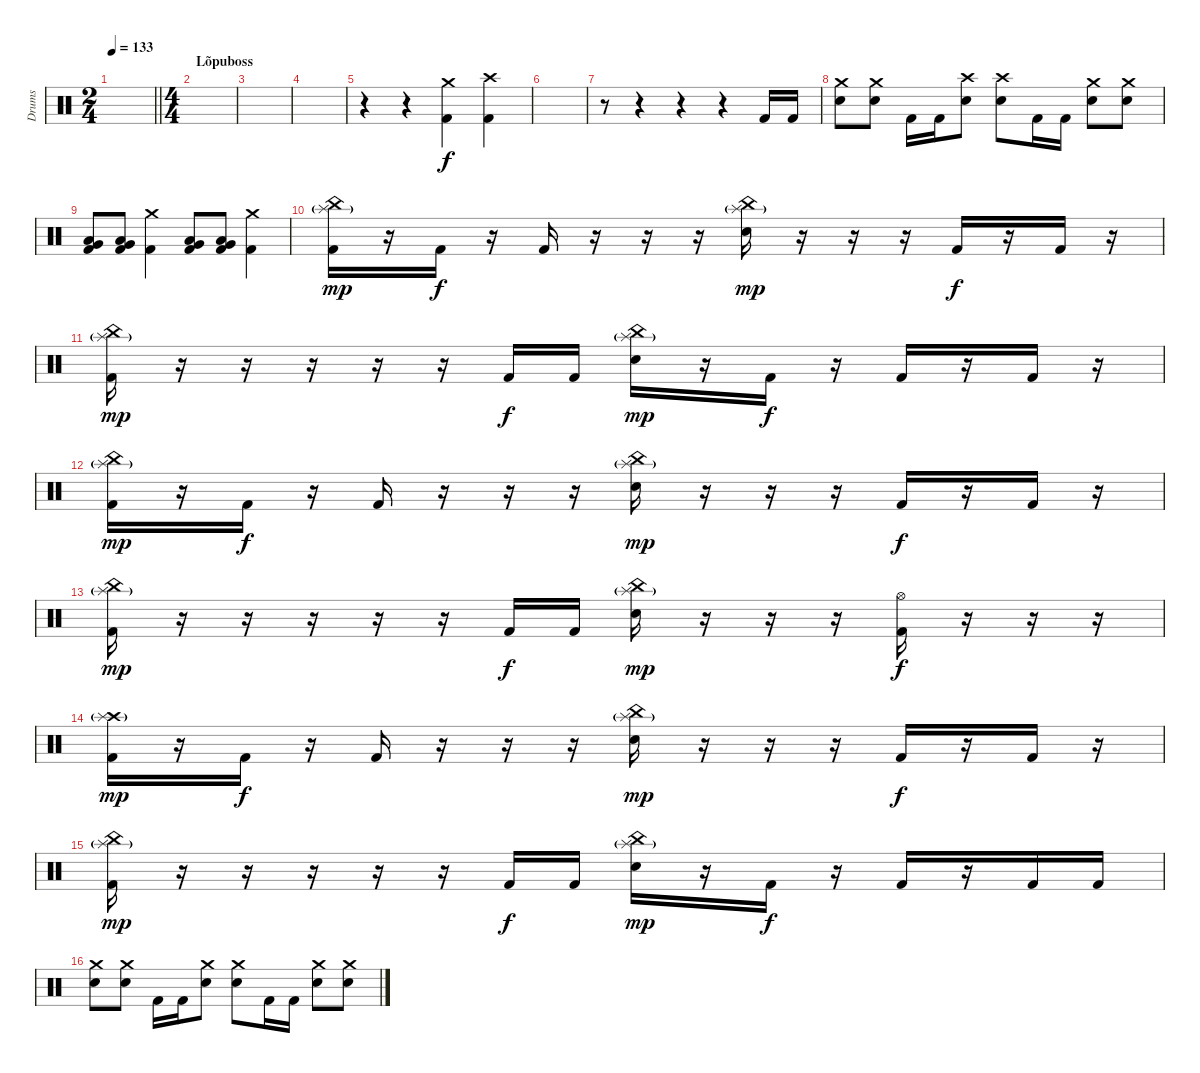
\track ("Drums" "Drums") {instrument percussion}
\staff {score}
\articulation defaults
\ts (2 4)
\tempo 133
\clef neutral
\barLineRight lightlight
\ks c
|
\ts (4 4)
\section ("" "Lõpuboss")
|
|
|
r.4 r.4 ("Crash medium (hit)" "Kick (hit) 2").4 ("Crash high (hit)" "Kick (hit) 2").4 |
|
r.8 r.4 r.4 r.4 "Kick (hit) 2".16 "Kick (hit) 2".16 |
("Crash medium (hit)" "Electric Snare (hit)").8 ("Crash medium (hit)" "Electric Snare (hit)").8 "Kick (hit) 2".16 "Kick (hit) 2".16 ("Crash high (hit)" "Electric Snare (hit)").8 ("Crash high (hit)" "Electric Snare (hit)").8 "Kick (hit) 2".16 "Kick (hit) 2".16 ("Crash medium (hit)" "Electric Snare (hit)").8 ("Crash medium (hit)" "Electric Snare (hit)").8 |
("Low Floor Tom (hit)" "Very Low Tom (hit)" "Kick (hit) 2").8 ("Low Floor Tom (hit)" "Very Low Tom (hit)" "Kick (hit) 2").8 ("Crash medium (hit)" "Kick (hit) 2").4 ("Low Floor Tom (hit)" "Very Low Tom (hit)" "Kick (hit) 2").8 ("Low Floor Tom (hit)" "Very Low Tom (hit)" "Kick (hit) 2").8 ("Crash medium (hit)" "Kick (hit) 2").4 |
("China (hit)" "Splash (hit)"{g} "Kick (hit) 2").16{dy mp} r.16 "Kick (hit) 2".16{dy f} r.16 "Kick (hit) 2".16 r.16 r.16 r.16 ("China (hit)" "Splash (hit)"{g} "Electric Snare (hit)").16{dy mp} r.16 r.16 r.16 "Kick (hit) 2".16{dy f} r.16 "Kick (hit) 2".16 r.16 |
("China (hit)" "Splash (hit)"{g} "Kick (hit) 2").16{dy mp} r.16 r.16 r.16 r.16 r.16 "Kick (hit) 2".16{dy f} "Kick (hit) 2".16 ("China (hit)" "Splash (hit)"{g} "Electric Snare (hit)").16{dy mp} r.16 "Kick (hit) 2".16{dy f} r.16 "Kick (hit) 2".16 r.16 "Kick (hit) 2".16 r.16 |
("China (hit)" "Splash (hit)"{g} "Kick (hit) 2").16{dy mp} r.16 "Kick (hit) 2".16{dy f} r.16 "Kick (hit) 2".16 r.16 r.16 r.16 ("China (hit)" "Splash (hit)"{g} "Electric Snare (hit)").16{dy mp} r.16 r.16 r.16 "Kick (hit) 2".16{dy f} r.16 "Kick (hit) 2".16 r.16 |
("China (hit)" "Splash (hit)"{g} "Kick (hit) 2").16{dy mp} r.16 r.16 r.16 r.16 r.16 "Kick (hit) 2".16{dy f} "Kick (hit) 2".16 ("China (hit)" "Splash (hit)"{g} "Electric Snare (hit)").16{dy mp} r.16 r.16 r.16 ("Hi-Hat (open)" "Kick (hit) 2").16{dy f} r.16 r.16{volume 0} r.16 |
("Crash high (hit)" "Splash (hit)"{g} "Kick (hit) 2").16{dy mp volume 14} r.16 "Kick (hit) 2".16{dy f} r.16 "Kick (hit) 2".16 r.16 r.16 r.16 ("China (hit)" "Splash (hit)"{g} "Electric Snare (hit)").16{dy mp} r.16 r.16 r.16 "Kick (hit) 2".16{dy f} r.16 "Kick (hit) 2".16 r.16 |
("China (hit)" "Splash (hit)"{g} "Kick (hit) 2").16{dy mp} r.16 r.16 r.16 r.16 r.16 "Kick (hit) 2".16{dy f} "Kick (hit) 2".16 ("China (hit)" "Splash (hit)"{g} "Electric Snare (hit)").16{dy mp} r.16 "Kick (hit) 2".16{dy f} r.16 "Kick (hit) 2".16 r.16 "Kick (hit) 2".16 "Kick (hit) 2".16 |
("Crash medium (hit)" "Electric Snare (hit)").8 ("Crash medium (hit)" "Electric Snare (hit)").8 "Kick (hit) 2".16 "Kick (hit) 2".16 ("Crash medium (hit)" "Electric Snare (hit)").8 ("Crash medium (hit)" "Electric Snare (hit)").8 "Kick (hit) 2".16 "Kick (hit) 2".16 ("Crash medium (hit)" "Electric Snare (hit)").8 ("Crash medium (hit)" "Electric Snare (hit)").8
